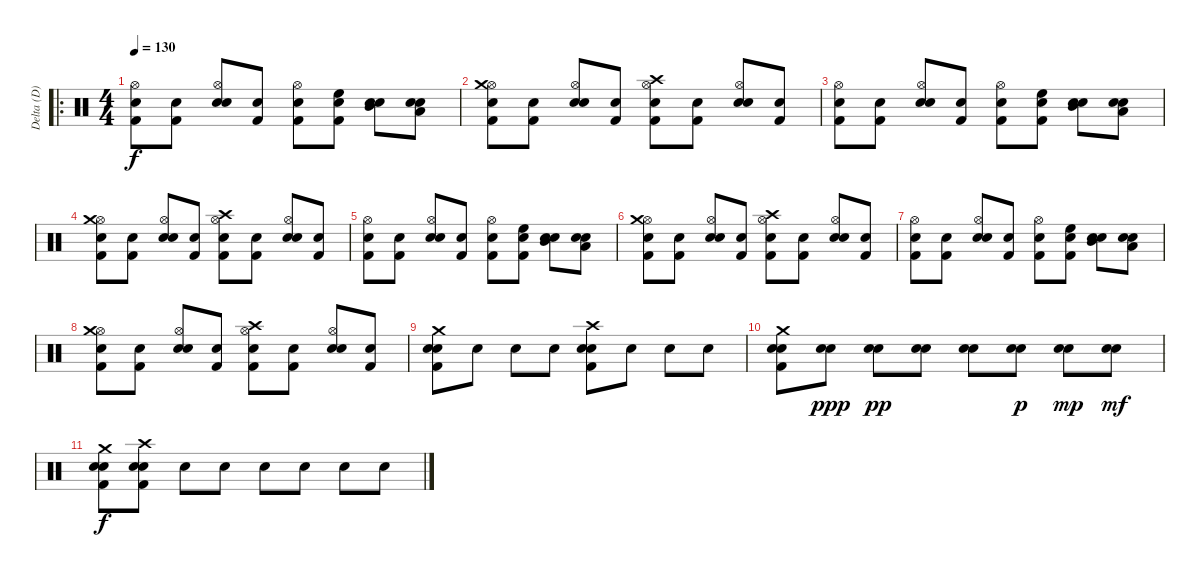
\track ("Delta (D)" "Delta (D)") {instrument percussion}
\staff {score}
\articulation defaults
\ro
\ts (4 4)
\tempo 130
\clef neutral
\ks c
("Snare (hit)"{x} "Kick (hit) 2" "Hi-Hat (open)").8{dy f} ("Snare (hit)"{x} "Kick (hit) 2").8 ("Snare (hit)"{x} "Electric Snare (hit)" "Hi-Hat (open)").8 ("Snare (hit)"{x} "Kick (hit) 2").8 ("Snare (hit)"{x} "Kick (hit) 2" "Hi-Hat (open)").8 ("Snare (hit)"{x} "Kick (hit) 2" "High Floor Tom (hit)").8 ("Snare (hit)"{x} "Electric Snare (hit)" "Mid Tom (hit)").8 ("Snare (hit)"{x} "Electric Snare (hit)" "Low Tom (hit)").8 |
("Snare (hit)"{x} "Kick (hit) 2" "Hi-Hat (open)" "Crash medium (hit)").8 ("Snare (hit)"{x} "Kick (hit) 2").8 ("Snare (hit)"{x} "Electric Snare (hit)" "Hi-Hat (open)").8 ("Snare (hit)"{x} "Kick (hit) 2").8 ("Snare (hit)"{x} "Kick (hit) 2" "Hi-Hat (open)" "Crash high (hit)").8 ("Snare (hit)"{x} "Kick (hit) 2").8 ("Snare (hit)"{x} "Electric Snare (hit)" "Hi-Hat (open)").8 ("Snare (hit)"{x} "Kick (hit) 2").8 |
("Snare (hit)"{x} "Kick (hit) 2" "Hi-Hat (open)").8 ("Snare (hit)"{x} "Kick (hit) 2").8 ("Snare (hit)"{x} "Electric Snare (hit)" "Hi-Hat (open)").8 ("Snare (hit)"{x} "Kick (hit) 2").8 ("Snare (hit)"{x} "Kick (hit) 2" "Hi-Hat (open)").8 ("Snare (hit)"{x} "Kick (hit) 2" "High Floor Tom (hit)").8 ("Snare (hit)"{x} "Electric Snare (hit)" "Mid Tom (hit)").8 ("Snare (hit)"{x} "Electric Snare (hit)" "Low Tom (hit)").8 |
("Snare (hit)"{x} "Kick (hit) 2" "Hi-Hat (open)" "Crash medium (hit)").8 ("Snare (hit)"{x} "Kick (hit) 2").8 ("Snare (hit)"{x} "Electric Snare (hit)" "Hi-Hat (open)").8 ("Snare (hit)"{x} "Kick (hit) 2").8 ("Snare (hit)"{x} "Kick (hit) 2" "Hi-Hat (open)" "Crash high (hit)").8 ("Snare (hit)"{x} "Kick (hit) 2").8 ("Snare (hit)"{x} "Electric Snare (hit)" "Hi-Hat (open)").8 ("Snare (hit)"{x} "Kick (hit) 2").8 |
("Snare (hit)"{x} "Kick (hit) 2" "Hi-Hat (open)").8 ("Snare (hit)"{x} "Kick (hit) 2").8 ("Snare (hit)"{x} "Electric Snare (hit)" "Hi-Hat (open)").8 ("Snare (hit)"{x} "Kick (hit) 2").8 ("Snare (hit)"{x} "Kick (hit) 2" "Hi-Hat (open)").8 ("Snare (hit)"{x} "Kick (hit) 2" "High Floor Tom (hit)").8 ("Snare (hit)"{x} "Electric Snare (hit)" "Mid Tom (hit)").8 ("Snare (hit)"{x} "Electric Snare (hit)" "Low Tom (hit)").8 |
("Snare (hit)"{x} "Kick (hit) 2" "Hi-Hat (open)" "Crash medium (hit)").8 ("Snare (hit)"{x} "Kick (hit) 2").8 ("Snare (hit)"{x} "Electric Snare (hit)" "Hi-Hat (open)").8 ("Snare (hit)"{x} "Kick (hit) 2").8 ("Snare (hit)"{x} "Kick (hit) 2" "Hi-Hat (open)" "Crash high (hit)").8 ("Snare (hit)"{x} "Kick (hit) 2").8 ("Snare (hit)"{x} "Electric Snare (hit)" "Hi-Hat (open)").8 ("Snare (hit)"{x} "Kick (hit) 2").8 |
("Snare (hit)"{x} "Kick (hit) 2" "Hi-Hat (open)").8 ("Snare (hit)"{x} "Kick (hit) 2").8 ("Snare (hit)"{x} "Electric Snare (hit)" "Hi-Hat (open)").8 ("Snare (hit)"{x} "Kick (hit) 2").8 ("Snare (hit)"{x} "Kick (hit) 2" "Hi-Hat (open)").8 ("Snare (hit)"{x} "Kick (hit) 2" "High Floor Tom (hit)").8 ("Snare (hit)"{x} "Electric Snare (hit)" "Mid Tom (hit)").8 ("Snare (hit)"{x} "Electric Snare (hit)" "Low Tom (hit)").8 |
("Snare (hit)"{x} "Kick (hit) 2" "Hi-Hat (open)" "Crash medium (hit)").8 ("Snare (hit)"{x} "Kick (hit) 2").8 ("Snare (hit)"{x} "Electric Snare (hit)" "Hi-Hat (open)").8 ("Snare (hit)"{x} "Kick (hit) 2").8 ("Snare (hit)"{x} "Kick (hit) 2" "Hi-Hat (open)" "Crash high (hit)").8 ("Snare (hit)"{x} "Kick (hit) 2").8 ("Snare (hit)"{x} "Electric Snare (hit)" "Hi-Hat (open)").8 ("Snare (hit)"{x} "Kick (hit) 2").8 |
("Snare (hit)"{x} "Kick (hit) 2" "Electric Snare (hit)" "Crash medium (hit)").8 "Snare (hit)"{x}.8 "Snare (hit)"{x}.8 "Snare (hit)"{x}.8 ("Snare (hit)"{x} "Kick (hit) 2" "Electric Snare (hit)" "Crash high (hit)").8 "Snare (hit)"{x}.8 "Snare (hit)"{x}.8 "Snare (hit)"{x}.8 |
("Snare (hit)"{x} "Kick (hit) 2" "Electric Snare (hit)" "Crash medium (hit)").8 ("Snare (hit)"{x} "Electric Snare (hit)").8{dy ppp} ("Snare (hit)"{x} "Electric Snare (hit)").8{dy pp} ("Snare (hit)"{x} "Electric Snare (hit)").8 ("Snare (hit)"{x} "Electric Snare (hit)").8 ("Snare (hit)"{x} "Electric Snare (hit)").8{dy p} ("Snare (hit)"{x} "Electric Snare (hit)").8{dy mp} ("Snare (hit)"{x} "Electric Snare (hit)").8{dy mf} |
("Snare (hit)"{x} "Kick (hit) 2" "Electric Snare (hit)" "Crash medium (hit)").8{dy f} ("Snare (hit)"{x} "Kick (hit) 2" "Electric Snare (hit)" "Crash high (hit)").8 "Snare (hit)"{x}.8 "Snare (hit)"{x}.8 "Snare (hit)"{x}.8 "Snare (hit)"{x}.8 "Snare (hit)"{x}.8 "Snare (hit)"{x}.8
